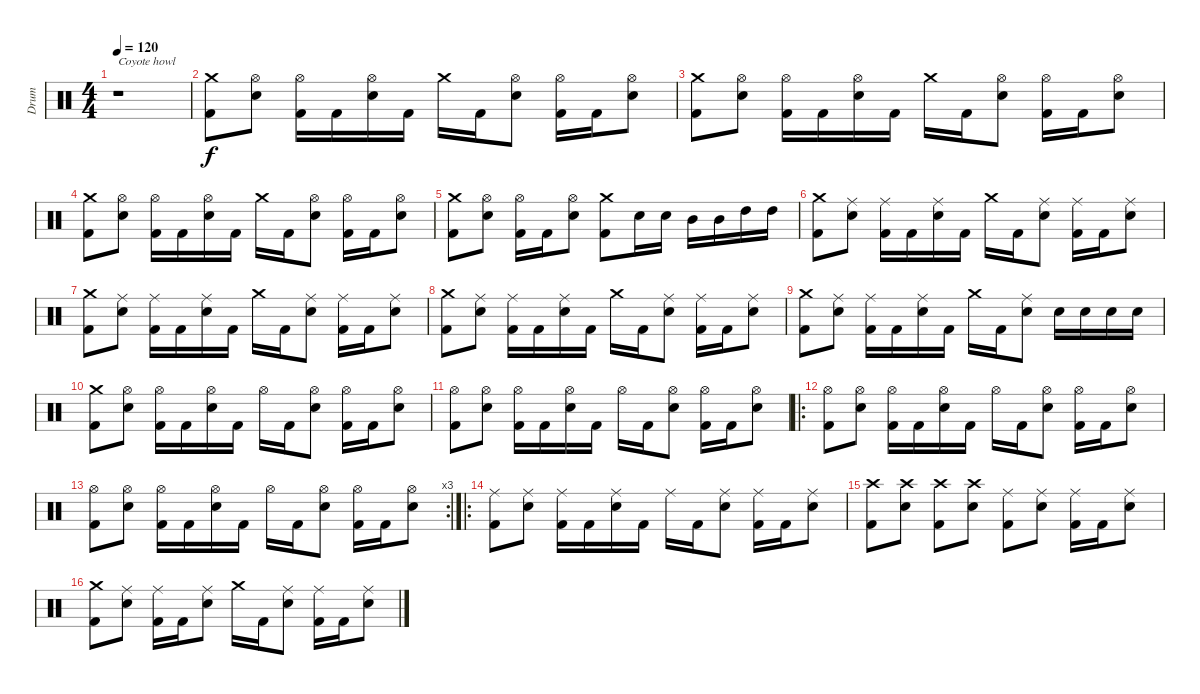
\track ("Drum" "Drum") {instrument percussion}
\staff {score}
\articulation defaults
\ts (4 4)
\tempo 120
\clef neutral
\ks c
r.1{txt "Coyote howl" dy f} |
("Crash medium (hit)" "Kick (hit) 2").8 ("Hi-Hat (open)" "Electric Snare (hit)").8 ("Hi-Hat (open)" "Kick (hit) 2").16 "Kick (hit) 2".16 ("Hi-Hat (open)" "Electric Snare (hit)").16 "Kick (hit) 2".16 "Crash medium (hit)".16 "Kick (hit) 2".16 ("Hi-Hat (open)" "Electric Snare (hit)").8 ("Hi-Hat (open)" "Kick (hit) 2").16 "Kick (hit) 2".16 ("Hi-Hat (open)" "Electric Snare (hit)").8 |
("Crash medium (hit)" "Kick (hit) 2").8 ("Hi-Hat (open)" "Electric Snare (hit)").8 ("Hi-Hat (open)" "Kick (hit) 2").16 "Kick (hit) 2".16 ("Hi-Hat (open)" "Electric Snare (hit)").16 "Kick (hit) 2".16 "Crash medium (hit)".16 "Kick (hit) 2".16 ("Hi-Hat (open)" "Electric Snare (hit)").8 ("Hi-Hat (open)" "Kick (hit) 2").16 "Kick (hit) 2".16 ("Hi-Hat (open)" "Electric Snare (hit)").8 |
("Crash medium (hit)" "Kick (hit) 2").8 ("Hi-Hat (open)" "Electric Snare (hit)").8 ("Hi-Hat (open)" "Kick (hit) 2").16 "Kick (hit) 2".16 ("Hi-Hat (open)" "Electric Snare (hit)").16 "Kick (hit) 2".16 "Crash medium (hit)".16 "Kick (hit) 2".16 ("Hi-Hat (open)" "Electric Snare (hit)").8 ("Hi-Hat (open)" "Kick (hit) 2").16 "Kick (hit) 2".16 ("Hi-Hat (open)" "Electric Snare (hit)").8 |
("Crash medium (hit)" "Kick (hit) 2").8 ("Hi-Hat (open)" "Electric Snare (hit)").8 ("Hi-Hat (open)" "Kick (hit) 2").16 "Kick (hit) 2".16 ("Hi-Hat (open)" "Electric Snare (hit)").8 ("Crash medium (hit)" "Kick (hit) 2").8 "Electric Snare (hit)".16 "Electric Snare (hit)".16 "Mid Tom (hit)".16 "Mid Tom (hit)".16 "High Tom (hit)".16 "High Tom (hit)".16 |
("Crash medium (hit)" "Kick (hit) 2").8 ("Ride (middle)" "Electric Snare (hit)").8 ("Ride (middle)" "Kick (hit) 2").16 "Kick (hit) 2".16 ("Ride (middle)" "Electric Snare (hit)").16 "Kick (hit) 2".16 "Crash medium (hit)".16 "Kick (hit) 2".16 ("Ride (middle)" "Electric Snare (hit)").8 ("Ride (middle)" "Kick (hit) 2").16 "Kick (hit) 2".16 ("Ride (middle)" "Electric Snare (hit)").8 |
("Crash medium (hit)" "Kick (hit) 2").8 ("Ride (middle)" "Electric Snare (hit)").8 ("Ride (middle)" "Kick (hit) 2").16 "Kick (hit) 2".16 ("Ride (middle)" "Electric Snare (hit)").16 "Kick (hit) 2".16 "Crash medium (hit)".16 "Kick (hit) 2".16 ("Ride (middle)" "Electric Snare (hit)").8 ("Ride (middle)" "Kick (hit) 2").16 "Kick (hit) 2".16 ("Ride (middle)" "Electric Snare (hit)").8 |
("Crash medium (hit)" "Kick (hit) 2").8 ("Ride (middle)" "Electric Snare (hit)").8 ("Ride (middle)" "Kick (hit) 2").16 "Kick (hit) 2".16 ("Ride (middle)" "Electric Snare (hit)").16 "Kick (hit) 2".16 "Crash medium (hit)".16 "Kick (hit) 2".16 ("Ride (middle)" "Electric Snare (hit)").8 ("Ride (middle)" "Kick (hit) 2").16 "Kick (hit) 2".16 ("Ride (middle)" "Electric Snare (hit)").8 |
("Crash medium (hit)" "Kick (hit) 2").8 ("Ride (middle)" "Electric Snare (hit)").8 ("Ride (middle)" "Kick (hit) 2").16 "Kick (hit) 2".16 ("Ride (middle)" "Electric Snare (hit)").16 "Kick (hit) 2".16 "Crash medium (hit)".16 "Kick (hit) 2".16 ("Ride (middle)" "Electric Snare (hit)").8 "Electric Snare (hit)".16 "Electric Snare (hit)".16 "Electric Snare (hit)".16 "Electric Snare (hit)".16 |
("Crash medium (hit)" "Kick (hit) 2").8 ("Hi-Hat (open)" "Electric Snare (hit)").8 ("Hi-Hat (open)" "Kick (hit) 2").16 "Kick (hit) 2".16 ("Hi-Hat (open)" "Electric Snare (hit)").16 "Kick (hit) 2".16 "Hi-Hat (open)".16 "Kick (hit) 2".16 ("Hi-Hat (open)" "Electric Snare (hit)").8 ("Hi-Hat (open)" "Kick (hit) 2").16 "Kick (hit) 2".16 ("Hi-Hat (open)" "Electric Snare (hit)").8 |
("Hi-Hat (open)" "Kick (hit) 2").8 ("Hi-Hat (open)" "Electric Snare (hit)").8 ("Hi-Hat (open)" "Kick (hit) 2").16 "Kick (hit) 2".16 ("Hi-Hat (open)" "Electric Snare (hit)").16 "Kick (hit) 2".16 "Hi-Hat (open)".16 "Kick (hit) 2".16 ("Hi-Hat (open)" "Electric Snare (hit)").8 ("Hi-Hat (open)" "Kick (hit) 2").16 "Kick (hit) 2".16 ("Hi-Hat (open)" "Electric Snare (hit)").8 |
\ro
("Hi-Hat (open)" "Kick (hit) 2").8 ("Hi-Hat (open)" "Electric Snare (hit)").8 ("Hi-Hat (open)" "Kick (hit) 2").16 "Kick (hit) 2".16 ("Hi-Hat (open)" "Electric Snare (hit)").16 "Kick (hit) 2".16 "Hi-Hat (open)".16 "Kick (hit) 2".16 ("Hi-Hat (open)" "Electric Snare (hit)").8 ("Hi-Hat (open)" "Kick (hit) 2").16 "Kick (hit) 2".16 ("Hi-Hat (open)" "Electric Snare (hit)").8 |
\rc 3
("Hi-Hat (open)" "Kick (hit) 2").8 ("Hi-Hat (open)" "Electric Snare (hit)").8 ("Hi-Hat (open)" "Kick (hit) 2").16 "Kick (hit) 2".16 ("Hi-Hat (open)" "Electric Snare (hit)").16 "Kick (hit) 2".16 "Hi-Hat (open)".16 "Kick (hit) 2".16 ("Hi-Hat (open)" "Electric Snare (hit)").8 ("Hi-Hat (open)" "Kick (hit) 2").16 "Kick (hit) 2".16 ("Hi-Hat (open)" "Electric Snare (hit)").8 |
\ro
("Ride (middle)" "Kick (hit) 2").8 ("Ride (middle)" "Electric Snare (hit)").8 ("Ride (middle)" "Kick (hit) 2").16 "Kick (hit) 2".16 ("Ride (middle)" "Electric Snare (hit)").16 "Kick (hit) 2".16 "Ride (middle)".16 "Kick (hit) 2".16 ("Ride (middle)" "Electric Snare (hit)").8 ("Ride (middle)" "Kick (hit) 2").16 "Kick (hit) 2".16 ("Ride (middle)" "Electric Snare (hit)").8 |
("Crash high (hit)" "Kick (hit) 2").8 ("Crash high (hit)" "Electric Snare (hit)").8 ("Crash high (hit)" "Kick (hit) 2").8 ("Crash high (hit)" "Electric Snare (hit)").8 ("Ride (middle)" "Kick (hit) 2").8 ("Ride (middle)" "Electric Snare (hit)").8 ("Ride (middle)" "Kick (hit) 2").16 "Kick (hit) 2".16 ("Ride (middle)" "Electric Snare (hit)").8 |
("Crash medium (hit)" "Kick (hit) 2").8 ("Ride (middle)" "Electric Snare (hit)").8 ("Ride (middle)" "Kick (hit) 2").16 "Kick (hit) 2".16 ("Ride (middle)" "Electric Snare (hit)").8 "Crash medium (hit)".16 "Kick (hit) 2".16 ("Ride (middle)" "Electric Snare (hit)").8 ("Ride (middle)" "Kick (hit) 2").16 "Kick (hit) 2".16 ("Ride (middle)" "Electric Snare (hit)").8
